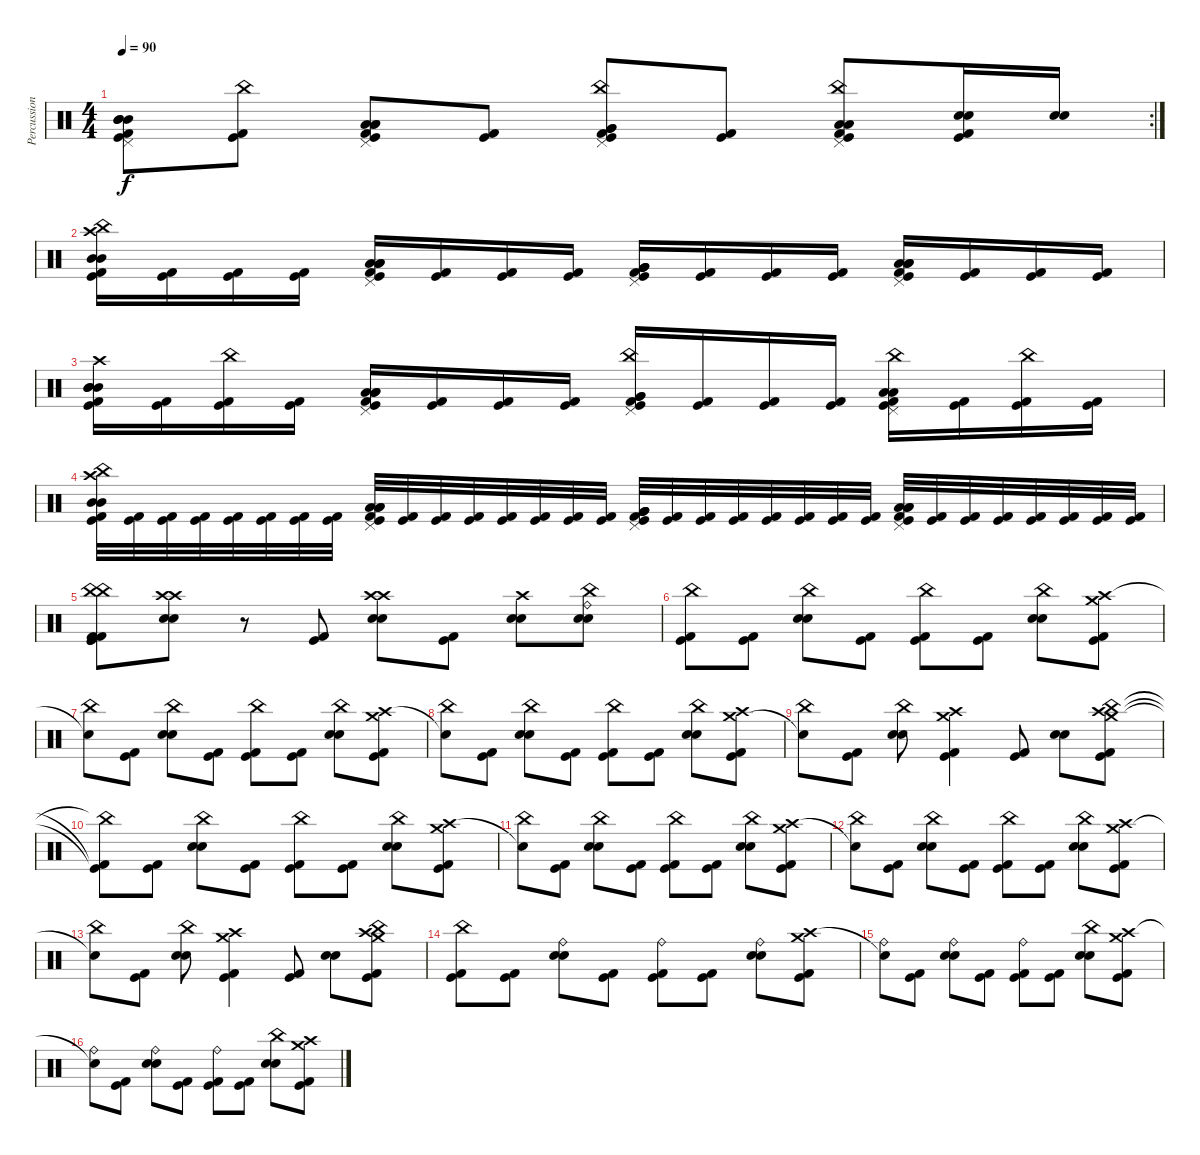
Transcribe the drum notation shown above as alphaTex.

\track ("Percussion" "Percussion") {instrument percussion}
\staff {score}
\articulation defaults
\rc 2
\ts (4 4)
\tempo 90
\clef neutral
\ks c
("Mid Tom (hit)" "Pedal Hi-Hat (hit)" "Mid Tom (hit)" "Mid Tom (hit)" "Kick (hit)" "Kick (hit) 2").8{dy f} ("China (hit)" "Kick (hit)" "Kick (hit) 2").8 ("Low Tom (hit)" "Pedal Hi-Hat (hit)" "Low Tom (hit)" "Low Tom (hit)" "Kick (hit)" "Kick (hit) 2").8 ("Kick (hit)" "Kick (hit) 2").8 ("China (hit)" "Pedal Hi-Hat (hit)" "Very Low Tom (hit)" "Very Low Tom (hit)" "Kick (hit)" "Kick (hit) 2").8 ("Kick (hit)" "Kick (hit) 2").8 ("China (hit)" "Pedal Hi-Hat (hit)" "Low Floor Tom (hit)" "Low Floor Tom (hit)" "Kick (hit)" "Kick (hit) 2").8 ("Electric Snare (hit)" "Snare (hit) 2" "Kick (hit)" "Kick (hit) 2").16 ("Electric Snare (hit)" "Snare (hit) 2").16 |
("China (hit)" "Crash high (hit)" "Mid Tom (hit)" "Mid Tom (hit)" "Kick (hit)" "Kick (hit) 2").16 ("Kick (hit)" "Kick (hit) 2").16 ("Kick (hit)" "Kick (hit) 2").16 ("Kick (hit)" "Kick (hit) 2").16 ("Low Tom (hit)" "Pedal Hi-Hat (hit)" "Low Tom (hit)" "Low Tom (hit)" "Kick (hit)" "Kick (hit) 2").16 ("Kick (hit)" "Kick (hit) 2").16 ("Kick (hit)" "Kick (hit) 2").16 ("Kick (hit)" "Kick (hit) 2").16 ("Very Low Tom (hit)" "Pedal Hi-Hat (hit)" "Very Low Tom (hit)" "Very Low Tom (hit)" "Kick (hit)" "Kick (hit) 2").16 ("Kick (hit)" "Kick (hit) 2").16 ("Kick (hit)" "Kick (hit) 2").16 ("Kick (hit)" "Kick (hit) 2").16 ("Low Floor Tom (hit)" "Pedal Hi-Hat (hit)" "Low Floor Tom (hit)" "Low Floor Tom (hit)" "Kick (hit)" "Kick (hit) 2").16 ("Kick (hit)" "Kick (hit) 2").16 ("Kick (hit)" "Kick (hit) 2").16 ("Kick (hit)" "Kick (hit) 2").16 |
("Mid Tom (hit)" "Crash high (hit)" "Mid Tom (hit)" "Mid Tom (hit)" "Kick (hit)" "Kick (hit) 2").16 ("Kick (hit)" "Kick (hit) 2").16 ("China (hit)" "Kick (hit)" "Kick (hit) 2").16 ("Kick (hit)" "Kick (hit) 2").16 ("Low Tom (hit)" "Pedal Hi-Hat (hit)" "Low Tom (hit)" "Low Tom (hit)" "Kick (hit)" "Kick (hit) 2").16 ("Kick (hit)" "Kick (hit) 2").16 ("Kick (hit)" "Kick (hit) 2").16 ("Kick (hit)" "Kick (hit) 2").16 ("China (hit)" "Pedal Hi-Hat (hit)" "Very Low Tom (hit)" "Very Low Tom (hit)" "Kick (hit)" "Kick (hit) 2").16 ("Kick (hit)" "Kick (hit) 2").16 ("Kick (hit)" "Kick (hit) 2").16 ("Kick (hit)" "Kick (hit) 2").16 ("China (hit)" "Pedal Hi-Hat (hit)" "Low Floor Tom (hit)" "Low Floor Tom (hit)" "Kick (hit)" "Kick (hit) 2").16 ("Kick (hit)" "Kick (hit) 2").16 ("China (hit)" "Kick (hit)" "Kick (hit) 2").16 ("Kick (hit)" "Kick (hit) 2").16 |
("China (hit)" "Crash high (hit)" "Mid Tom (hit)" "Mid Tom (hit)" "Kick (hit)" "Kick (hit) 2").32 ("Kick (hit)" "Kick (hit) 2").32 ("Kick (hit)" "Kick (hit) 2").32 ("Kick (hit)" "Kick (hit) 2").32 ("Kick (hit)" "Kick (hit) 2").32 ("Kick (hit)" "Kick (hit) 2").32 ("Kick (hit)" "Kick (hit) 2").32 ("Kick (hit)" "Kick (hit) 2").32 ("Low Tom (hit)" "Pedal Hi-Hat (hit)" "Low Tom (hit)" "Low Tom (hit)" "Kick (hit)" "Kick (hit) 2").32 ("Kick (hit)" "Kick (hit) 2").32 ("Kick (hit)" "Kick (hit) 2").32 ("Kick (hit)" "Kick (hit) 2").32 ("Kick (hit)" "Kick (hit) 2").32 ("Kick (hit)" "Kick (hit) 2").32 ("Kick (hit)" "Kick (hit) 2").32 ("Kick (hit)" "Kick (hit) 2").32 ("Very Low Tom (hit)" "Pedal Hi-Hat (hit)" "Very Low Tom (hit)" "Very Low Tom (hit)" "Kick (hit)" "Kick (hit) 2").32 ("Kick (hit)" "Kick (hit) 2").32 ("Kick (hit)" "Kick (hit) 2").32 ("Kick (hit)" "Kick (hit) 2").32 ("Kick (hit)" "Kick (hit) 2").32 ("Kick (hit)" "Kick (hit) 2").32 ("Kick (hit)" "Kick (hit) 2").32 ("Kick (hit)" "Kick (hit) 2").32 ("Low Floor Tom (hit)" "Pedal Hi-Hat (hit)" "Low Floor Tom (hit)" "Low Floor Tom (hit)" "Kick (hit)" "Kick (hit) 2").32 ("Kick (hit)" "Kick (hit) 2").32 ("Kick (hit)" "Kick (hit) 2").32 ("Kick (hit)" "Kick (hit) 2").32 ("Kick (hit)" "Kick (hit) 2").32 ("Kick (hit)" "Kick (hit) 2").32 ("Kick (hit)" "Kick (hit) 2").32 ("Kick (hit)" "Kick (hit) 2").32 |
("China (hit)" "China (hit)" "Kick (hit)" "Kick (hit) 2" "Kick (hit)" "Kick (hit) 2").8 ("Crash high (hit)" "Crash high (hit)" "Electric Snare (hit)" "Snare (hit) 2").8 r.8 ("Kick (hit)" "Kick (hit) 2").8 ("Crash high (hit)" "Crash high (hit)" "Electric Snare (hit)" "Snare (hit) 2").8 ("Kick (hit)" "Kick (hit) 2").8 ("Crash high (hit)" "Electric Snare (hit)" "Snare (hit) 2").8 ("Ride (bell)" "China (hit)" "Electric Snare (hit)" "Snare (hit) 2").8 |
("China (hit)" "Kick (hit)" "Kick (hit) 2").8 ("Kick (hit)" "Kick (hit) 2").8 ("China (hit)" "Electric Snare (hit)" "Snare (hit) 2").8 ("Kick (hit)" "Kick (hit) 2").8 ("China (hit)" "Kick (hit)" "Kick (hit) 2").8 ("Kick (hit)" "Kick (hit) 2").8 ("China (hit)" "Electric Snare (hit)" "Snare (hit) 2").8 ("Crash medium (hit)" "Crash high (hit)" "Kick (hit)" "Kick (hit) 2").8 |
("China (hit)" "Snare (hit)"{t}).8 ("Kick (hit)" "Kick (hit) 2").8 ("China (hit)" "Electric Snare (hit)" "Snare (hit) 2").8 ("Kick (hit)" "Kick (hit) 2").8 ("China (hit)" "Kick (hit)" "Kick (hit) 2").8 ("Kick (hit)" "Kick (hit) 2").8 ("China (hit)" "Electric Snare (hit)" "Snare (hit) 2").8 ("Crash medium (hit)" "Crash high (hit)" "Kick (hit)" "Kick (hit) 2").8 |
("China (hit)" "Snare (hit)"{t}).8 ("Kick (hit)" "Kick (hit) 2").8 ("China (hit)" "Electric Snare (hit)" "Snare (hit) 2").8 ("Kick (hit)" "Kick (hit) 2").8 ("China (hit)" "Kick (hit)" "Kick (hit) 2").8 ("Kick (hit)" "Kick (hit) 2").8 ("China (hit)" "Electric Snare (hit)" "Snare (hit) 2").8 ("Crash medium (hit)" "Crash high (hit)" "Kick (hit)" "Kick (hit) 2").8 |
("Snare (hit)"{t} "China (hit)").8 ("Kick (hit)" "Kick (hit) 2").8 ("China (hit)" "Electric Snare (hit)" "Snare (hit) 2").8 ("Crash medium (hit)" "Crash high (hit)" "Kick (hit)" "Kick (hit) 2").4 ("Kick (hit)" "Kick (hit) 2").8 ("Electric Snare (hit)" "Snare (hit) 2").8 ("Crash high (hit)" "Crash medium (hit)" "China (hit)" "Kick (hit)" "Kick (hit) 2").8 |
("China (hit)"{t} "Kick (hit)"{t} "Kick (hit) 2"{t}).8 ("Kick (hit)" "Kick (hit) 2").8 ("China (hit)" "Electric Snare (hit)" "Snare (hit) 2").8 ("Kick (hit)" "Kick (hit) 2").8 ("China (hit)" "Kick (hit)" "Kick (hit) 2").8 ("Kick (hit)" "Kick (hit) 2").8 ("China (hit)" "Electric Snare (hit)" "Snare (hit) 2").8 ("Crash medium (hit)" "Crash high (hit)" "Kick (hit)" "Kick (hit) 2").8 |
("China (hit)" "Snare (hit)"{t}).8 ("Kick (hit)" "Kick (hit) 2").8 ("China (hit)" "Electric Snare (hit)" "Snare (hit) 2").8 ("Kick (hit)" "Kick (hit) 2").8 ("China (hit)" "Kick (hit)" "Kick (hit) 2").8 ("Kick (hit)" "Kick (hit) 2").8 ("China (hit)" "Electric Snare (hit)" "Snare (hit) 2").8 ("Crash medium (hit)" "Crash high (hit)" "Kick (hit)" "Kick (hit) 2").8 |
("China (hit)" "Snare (hit)"{t}).8 ("Kick (hit)" "Kick (hit) 2").8 ("China (hit)" "Electric Snare (hit)" "Snare (hit) 2").8 ("Kick (hit)" "Kick (hit) 2").8 ("China (hit)" "Kick (hit)" "Kick (hit) 2").8 ("Kick (hit)" "Kick (hit) 2").8 ("China (hit)" "Electric Snare (hit)" "Snare (hit) 2").8 ("Crash medium (hit)" "Crash high (hit)" "Kick (hit)" "Kick (hit) 2").8 |
("Snare (hit)"{t} "China (hit)").8 ("Kick (hit)" "Kick (hit) 2").8 ("China (hit)" "Electric Snare (hit)" "Snare (hit) 2").8 ("Crash medium (hit)" "Crash high (hit)" "Kick (hit)" "Kick (hit) 2").4 ("Kick (hit)" "Kick (hit) 2").8 ("Electric Snare (hit)" "Snare (hit) 2").8 ("Crash high (hit)" "Crash medium (hit)" "China (hit)" "Kick (hit)" "Kick (hit) 2").8 |
("China (hit)" "Kick (hit)" "Kick (hit) 2").8 ("Kick (hit)" "Kick (hit) 2").8 ("Ride (bell)" "Electric Snare (hit)" "Snare (hit) 2").8 ("Kick (hit)" "Kick (hit) 2").8 ("Ride (bell)" "Kick (hit)" "Kick (hit) 2").8 ("Kick (hit)" "Kick (hit) 2").8 ("Ride (bell)" "Electric Snare (hit)" "Snare (hit) 2").8 ("Crash medium (hit)" "Crash high (hit)" "Kick (hit)" "Kick (hit) 2").8 |
("Ride (bell)" "Snare (hit)"{t}).8 ("Kick (hit)" "Kick (hit) 2").8 ("Ride (bell)" "Electric Snare (hit)" "Snare (hit) 2").8 ("Kick (hit)" "Kick (hit) 2").8 ("Ride (bell)" "Kick (hit)" "Kick (hit) 2").8 ("Kick (hit)" "Kick (hit) 2").8 ("China (hit)" "Electric Snare (hit)" "Snare (hit) 2").8 ("Crash medium (hit)" "Crash high (hit)" "Kick (hit)" "Kick (hit) 2").8 |
("Ride (bell)" "Snare (hit)"{t}).8 ("Kick (hit)" "Kick (hit) 2").8 ("Ride (bell)" "Electric Snare (hit)" "Snare (hit) 2").8 ("Kick (hit)" "Kick (hit) 2").8 ("Ride (bell)" "Kick (hit)" "Kick (hit) 2").8 ("Kick (hit)" "Kick (hit) 2").8 ("China (hit)" "Electric Snare (hit)" "Snare (hit) 2").8 ("Crash medium (hit)" "Crash high (hit)" "Kick (hit)" "Kick (hit) 2").8
